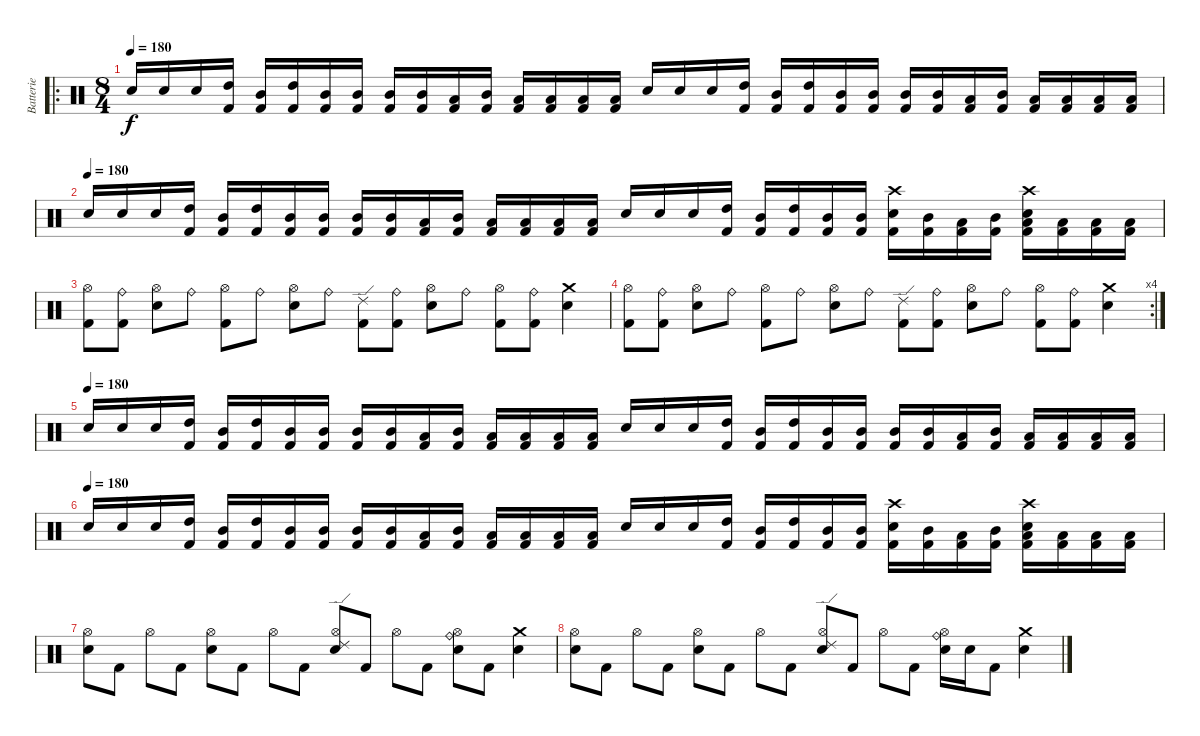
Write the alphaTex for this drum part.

\track ("Batterie" "Batterie") {instrument percussion}
\staff {score}
\articulation defaults
\ro
\ts (8 4)
\tempo 170
\tempo 180
\clef neutral
\ks c "Electric Snare (hit)".16{dy f} "Electric Snare (hit)".16 "Electric Snare (hit)".16
("High Tom (hit)" "Kick (hit) 2").16 ("Mid Tom (hit)" "Kick (hit) 2").16 ("High Tom (hit)" "Kick (hit) 2").16 ("Mid Tom (hit)" "Kick (hit) 2").16 ("Mid Tom (hit)" "Kick (hit) 2").16 ("Mid Tom (hit)" "Kick (hit) 2").16 ("Mid Tom (hit)" "Kick (hit) 2").16 ("Low Tom (hit)" "Kick (hit) 2").16 ("Mid Tom (hit)" "Kick (hit) 2").16 ("Low Tom (hit)" "Kick (hit) 2").16 ("Low Tom (hit)" "Kick (hit) 2").16 ("Low Tom (hit)" "Kick (hit) 2").16 ("Low Tom (hit)" "Kick (hit) 2").16 "Electric Snare (hit)".16 "Electric Snare (hit)".16 "Electric Snare (hit)".16 ("High Tom (hit)" "Kick (hit) 2").16 ("Mid Tom (hit)" "Kick (hit) 2").16 ("High Tom (hit)" "Kick (hit) 2").16 ("Mid Tom (hit)" "Kick (hit) 2").16 ("Mid Tom (hit)" "Kick (hit) 2").16 ("Mid Tom (hit)" "Kick (hit) 2").16 ("Mid Tom (hit)" "Kick (hit) 2").16 ("Low Tom (hit)" "Kick (hit) 2").16 ("Mid Tom (hit)" "Kick (hit) 2").16 ("Low Tom (hit)" "Kick (hit) 2").16 ("Low Tom (hit)" "Kick (hit) 2").16 ("Low Tom (hit)" "Kick (hit) 2").16 ("Low Tom (hit)" "Kick (hit) 2").16 |
\tempo (180)
"Electric Snare (hit)".16 "Electric Snare (hit)".16 "Electric Snare (hit)".16 ("High Tom (hit)" "Kick (hit) 2").16 ("Mid Tom (hit)" "Kick (hit) 2").16 ("High Tom (hit)" "Kick (hit) 2").16 ("Mid Tom (hit)" "Kick (hit) 2").16 ("Mid Tom (hit)" "Kick (hit) 2").16 ("Mid Tom (hit)" "Kick (hit) 2").16 ("Mid Tom (hit)" "Kick (hit) 2").16 ("Low Tom (hit)" "Kick (hit) 2").16 ("Mid Tom (hit)" "Kick (hit) 2").16 ("Low Tom (hit)" "Kick (hit) 2").16 ("Low Tom (hit)" "Kick (hit) 2").16 ("Low Tom (hit)" "Kick (hit) 2").16 ("Low Tom (hit)" "Kick (hit) 2").16 "Electric Snare (hit)".16 "Electric Snare (hit)".16 "Electric Snare (hit)".16 ("High Tom (hit)" "Kick (hit) 2").16 ("Mid Tom (hit)" "Kick (hit) 2").16 ("High Tom (hit)" "Kick (hit) 2").16 ("Mid Tom (hit)" "Kick (hit) 2").16 ("Mid Tom (hit)" "Kick (hit) 2").16 ("Crash high (hit)" "Electric Snare (hit)" "Kick (hit) 2").16 ("Mid Tom (hit)" "Kick (hit) 2").16 ("Low Tom (hit)" "Kick (hit) 2").16 ("Mid Tom (hit)" "Kick (hit) 2").16 ("Crash high (hit)" "Electric Snare (hit)" "Low Tom (hit)" "Kick (hit) 2").16 ("Low Tom (hit)" "Kick (hit) 2").16 ("Low Tom (hit)" "Kick (hit) 2").16 ("Low Tom (hit)" "Kick (hit) 2").16 |
("Hi-Hat (open)" "Kick (hit) 2").8 ("Ride (bell)" "Kick (hit) 2").8 ("Hi-Hat (open)" "Electric Snare (hit)").8 "Ride (bell)".8 ("Hi-Hat (open)" "Kick (hit) 2").8 "Ride (bell)".8 ("Hi-Hat (open)" "Electric Snare (hit)").8 "Ride (bell)".8 ("Ride (edge) 2" "Kick (hit) 2").8 ("Ride (bell)" "Kick (hit) 2").8 ("Hi-Hat (open)" "Electric Snare (hit)").8 "Ride (bell)".8 ("Hi-Hat (open)" "Kick (hit) 2").8 ("Ride (bell)" "Kick (hit) 2").8 ("Crash medium (hit)" "Electric Snare (hit)").4 |
\rc 4
("Hi-Hat (open)" "Kick (hit) 2").8 ("Ride (bell)" "Kick (hit) 2").8 ("Hi-Hat (open)" "Electric Snare (hit)").8 "Ride (bell)".8 ("Hi-Hat (open)" "Kick (hit) 2").8 "Ride (bell)".8 ("Hi-Hat (open)" "Electric Snare (hit)").8 "Ride (bell)".8 ("Ride (edge) 2" "Kick (hit) 2").8 ("Ride (bell)" "Kick (hit) 2").8 ("Hi-Hat (open)" "Electric Snare (hit)").8 "Ride (bell)".8 ("Hi-Hat (open)" "Kick (hit) 2").8 ("Ride (bell)" "Kick (hit) 2").8 ("Crash medium (hit)" "Electric Snare (hit)").4 |
\tempo 170
\tempo (180)
"Electric Snare (hit)".16 "Electric Snare (hit)".16 "Electric Snare (hit)".16 ("High Tom (hit)" "Kick (hit) 2").16 ("Mid Tom (hit)" "Kick (hit) 2").16 ("High Tom (hit)" "Kick (hit) 2").16 ("Mid Tom (hit)" "Kick (hit) 2").16 ("Mid Tom (hit)" "Kick (hit) 2").16 ("Mid Tom (hit)" "Kick (hit) 2").16 ("Mid Tom (hit)" "Kick (hit) 2").16 ("Low Tom (hit)" "Kick (hit) 2").16 ("Mid Tom (hit)" "Kick (hit) 2").16 ("Low Tom (hit)" "Kick (hit) 2").16 ("Low Tom (hit)" "Kick (hit) 2").16 ("Low Tom (hit)" "Kick (hit) 2").16 ("Low Tom (hit)" "Kick (hit) 2").16 "Electric Snare (hit)".16 "Electric Snare (hit)".16 "Electric Snare (hit)".16 ("High Tom (hit)" "Kick (hit) 2").16 ("Mid Tom (hit)" "Kick (hit) 2").16 ("High Tom (hit)" "Kick (hit) 2").16 ("Mid Tom (hit)" "Kick (hit) 2").16 ("Mid Tom (hit)" "Kick (hit) 2").16 ("Mid Tom (hit)" "Kick (hit) 2").16 ("Mid Tom (hit)" "Kick (hit) 2").16 ("Low Tom (hit)" "Kick (hit) 2").16 ("Mid Tom (hit)" "Kick (hit) 2").16 ("Low Tom (hit)" "Kick (hit) 2").16 ("Low Tom (hit)" "Kick (hit) 2").16 ("Low Tom (hit)" "Kick (hit) 2").16 ("Low Tom (hit)" "Kick (hit) 2").16 |
\tempo (180)
"Electric Snare (hit)".16 "Electric Snare (hit)".16 "Electric Snare (hit)".16 ("High Tom (hit)" "Kick (hit) 2").16 ("Mid Tom (hit)" "Kick (hit) 2").16 ("High Tom (hit)" "Kick (hit) 2").16 ("Mid Tom (hit)" "Kick (hit) 2").16 ("Mid Tom (hit)" "Kick (hit) 2").16 ("Mid Tom (hit)" "Kick (hit) 2").16 ("Mid Tom (hit)" "Kick (hit) 2").16 ("Low Tom (hit)" "Kick (hit) 2").16 ("Mid Tom (hit)" "Kick (hit) 2").16 ("Low Tom (hit)" "Kick (hit) 2").16 ("Low Tom (hit)" "Kick (hit) 2").16 ("Low Tom (hit)" "Kick (hit) 2").16 ("Low Tom (hit)" "Kick (hit) 2").16 "Electric Snare (hit)".16 "Electric Snare (hit)".16 "Electric Snare (hit)".16 ("High Tom (hit)" "Kick (hit) 2").16 ("Mid Tom (hit)" "Kick (hit) 2").16 ("High Tom (hit)" "Kick (hit) 2").16 ("Mid Tom (hit)" "Kick (hit) 2").16 ("Mid Tom (hit)" "Kick (hit) 2").16 ("Crash high (hit)" "Electric Snare (hit)" "Kick (hit) 2").16 ("Mid Tom (hit)" "Kick (hit) 2").16 ("Low Tom (hit)" "Kick (hit) 2").16 ("Mid Tom (hit)" "Kick (hit) 2").16 ("Crash high (hit)" "Electric Snare (hit)" "Low Tom (hit)" "Kick (hit) 2").16 ("Low Tom (hit)" "Kick (hit) 2").16 ("Low Tom (hit)" "Kick (hit) 2").16 ("Low Tom (hit)" "Kick (hit) 2").16 |
("Hi-Hat (open)" "Electric Snare (hit)").8 "Kick (hit) 2".8 "Hi-Hat (open)".8 "Kick (hit) 2".8 ("Hi-Hat (open)" "Electric Snare (hit)").8 "Kick (hit) 2".8 "Hi-Hat (open)".8 "Kick (hit) 2".8 ("Hi-Hat (open)" "Ride (edge) 2" "Electric Snare (hit)").8 "Kick (hit) 2".8 "Hi-Hat (open)".8 "Kick (hit) 2".8 ("Hi-Hat (open)" "Ride (bell)" "Electric Snare (hit)").8 "Kick (hit) 2".8 ("Crash medium (hit)" "Electric Snare (hit)").4 |
("Hi-Hat (open)" "Electric Snare (hit)").8 "Kick (hit) 2".8 "Hi-Hat (open)".8 "Kick (hit) 2".8 ("Hi-Hat (open)" "Electric Snare (hit)").8 "Kick (hit) 2".8 "Hi-Hat (open)".8 "Kick (hit) 2".8 ("Hi-Hat (open)" "Ride (edge) 2" "Electric Snare (hit)").8 "Kick (hit) 2".8 "Hi-Hat (open)".8 "Kick (hit) 2".8 ("Hi-Hat (open)" "Ride (bell)" "Electric Snare (hit)").16 "Electric Snare (hit)".16 "Kick (hit) 2".8 ("Crash medium (hit)" "Electric Snare (hit)").4
